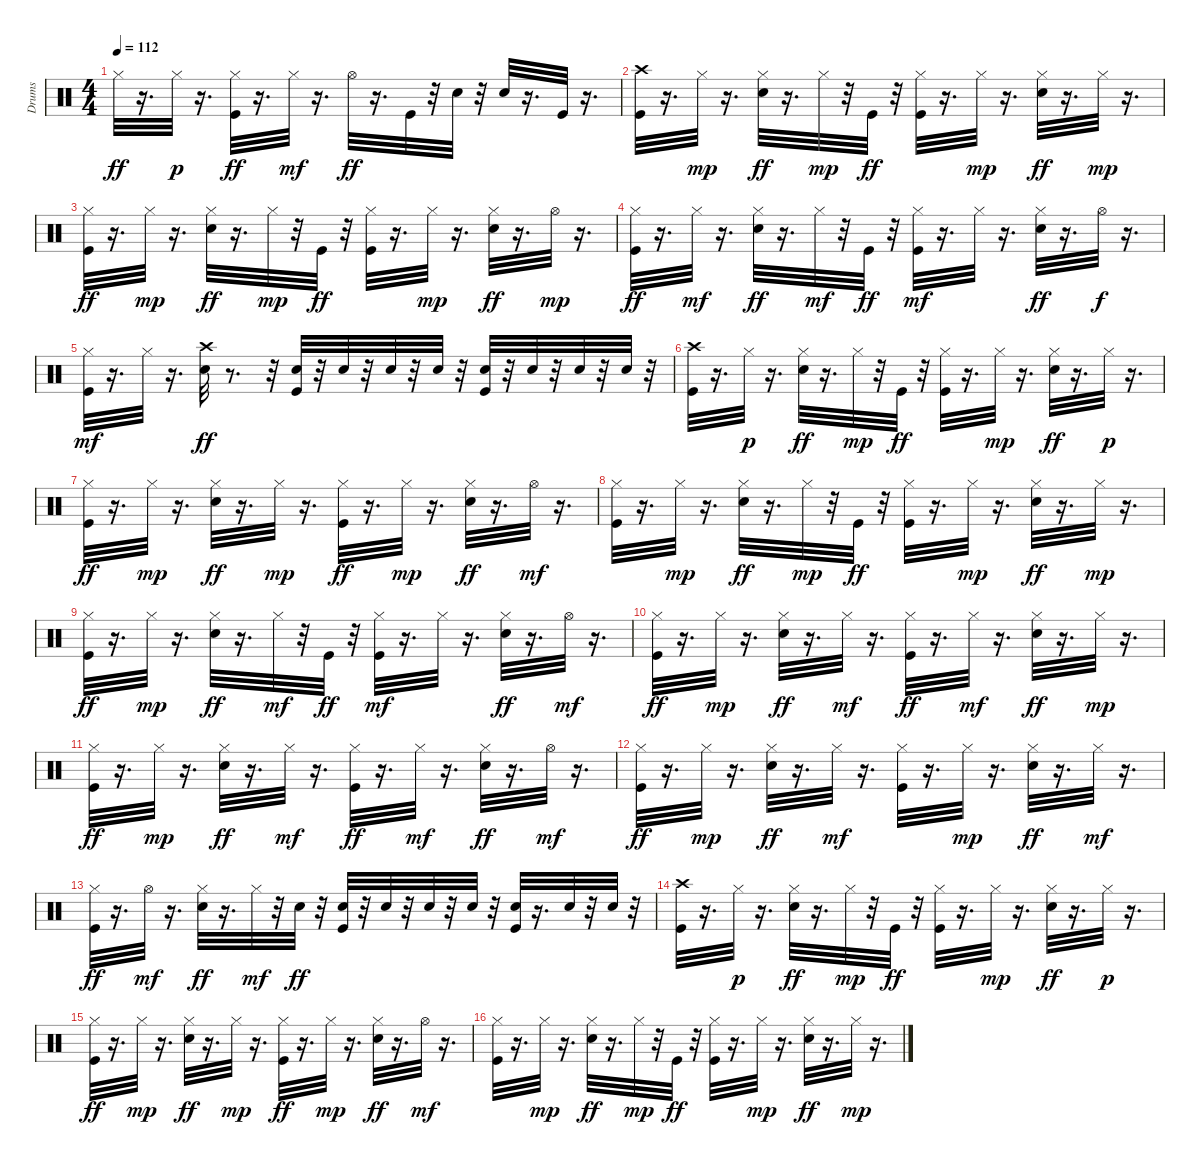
\track ("Drums" "Drums") {instrument percussion}
\staff {score}
\articulation defaults
\ts (4 4)
\tempo 112
\clef neutral
\ks c "Hi-Hat (closed)".32{dy ff}
r.16{d} "Hi-Hat (closed)".32{dy p} r.16{d} ("Hi-Hat (closed)" "Kick (hit)").32{dy ff} r.16{d} "Hi-Hat (closed)".32{dy mf} r.16{d} "Hi-Hat (open)".32{dy ff} r.16{d} "Kick (hit)".32 r.32 "Electric Snare (hit)".32 r.32 "Electric Snare (hit)".32 r.16{d} "Kick (hit)".32 r.16{d} |
("Kick (hit)" "Crash high (hit)").32 r.16{d} "Hi-Hat (closed)".32{dy mp} r.16{d} ("Hi-Hat (closed)" "Electric Snare (hit)").32{dy ff} r.16{d} "Hi-Hat (closed)".32{dy mp} r.32 "Kick (hit)".32{dy ff} r.32 ("Hi-Hat (closed)" "Kick (hit)").32 r.16{d} "Hi-Hat (closed)".32{dy mp} r.16{d} ("Electric Snare (hit)" "Hi-Hat (closed)").32{dy ff} r.16{d} "Hi-Hat (closed)".32{dy mp} r.16{d} |
("Hi-Hat (closed)" "Kick (hit)").32{dy ff} r.16{d} "Hi-Hat (closed)".32{dy mp} r.16{d} ("Electric Snare (hit)" "Hi-Hat (closed)").32{dy ff} r.16{d} "Hi-Hat (closed)".32{dy mp} r.32 "Kick (hit)".32{dy ff} r.32 ("Hi-Hat (closed)" "Kick (hit)").32 r.16{d} "Hi-Hat (closed)".32{dy mp} r.16{d} ("Electric Snare (hit)" "Hi-Hat (closed)").32{dy ff} r.16{d} "Hi-Hat (open)".32{dy mp} r.16{d} |
("Kick (hit)" "Hi-Hat (closed)").32{dy ff} r.16{d} "Hi-Hat (closed)".32{dy mf} r.16{d} ("Hi-Hat (closed)" "Electric Snare (hit)").32{dy ff} r.16{d} "Hi-Hat (closed)".32{dy mf} r.32 "Kick (hit)".32{dy ff} r.32 ("Kick (hit)" "Hi-Hat (closed)").32{dy mf} r.16{d} "Hi-Hat (closed)".32 r.16{d} ("Hi-Hat (closed)" "Electric Snare (hit)").32{dy ff} r.16{d} "Hi-Hat (open)".32{dy f} r.16{d} |
("Kick (hit)" "Hi-Hat (closed)").32{dy mf} r.16{d} "Hi-Hat (closed)".32 r.16{d} ("Crash high (hit)" "Electric Snare (hit)").32{dy ff} r.8{d} r.32 ("Kick (hit)" "Electric Snare (hit)").32 r.32 "Electric Snare (hit)".32 r.32 "Electric Snare (hit)".32 r.32 "Electric Snare (hit)".32 r.32 ("Kick (hit)" "Electric Snare (hit)").32 r.32 "Electric Snare (hit)".32 r.32 "Electric Snare (hit)".32 r.32 "Electric Snare (hit)".32 r.32 |
("Kick (hit)" "Crash high (hit)").32 r.16{d} "Hi-Hat (closed)".32{dy p} r.16{d} ("Hi-Hat (closed)" "Electric Snare (hit)").32{dy ff} r.16{d} "Hi-Hat (closed)".32{dy mp} r.32 "Kick (hit)".32{dy ff} r.32 ("Kick (hit)" "Hi-Hat (closed)").32 r.16{d} "Hi-Hat (closed)".32{dy mp} r.16{d} ("Hi-Hat (closed)" "Electric Snare (hit)").32{dy ff} r.16{d} "Hi-Hat (closed)".32{dy p} r.16{d} |
("Hi-Hat (closed)" "Kick (hit)").32{dy ff} r.16{d} "Hi-Hat (closed)".32{dy mp} r.16{d} ("Hi-Hat (closed)" "Electric Snare (hit)").32{dy ff} r.16{d} "Hi-Hat (closed)".32{dy mp} r.16{d} ("Hi-Hat (closed)" "Kick (hit)").32{dy ff} r.16{d} "Hi-Hat (closed)".32{dy mp} r.16{d} ("Hi-Hat (closed)" "Electric Snare (hit)").32{dy ff} r.16{d} "Hi-Hat (open)".32{dy mf} r.16{d} |
("Kick (hit)" "Hi-Hat (closed)").32 r.16{d} "Hi-Hat (closed)".32{dy mp} r.16{d} ("Electric Snare (hit)" "Hi-Hat (closed)").32{dy ff} r.16{d} "Hi-Hat (closed)".32{dy mp} r.32 "Kick (hit)".32{dy ff} r.32 ("Hi-Hat (closed)" "Kick (hit)").32 r.16{d} "Hi-Hat (closed)".32{dy mp} r.16{d} ("Electric Snare (hit)" "Hi-Hat (closed)").32{dy ff} r.16{d} "Hi-Hat (closed)".32{dy mp} r.16{d} |
("Hi-Hat (closed)" "Kick (hit)").32{dy ff} r.16{d} "Hi-Hat (closed)".32{dy mp} r.16{d} ("Hi-Hat (closed)" "Electric Snare (hit)").32{dy ff} r.16{d} "Hi-Hat (closed)".32{dy mf} r.32 "Kick (hit)".32{dy ff} r.32 ("Kick (hit)" "Hi-Hat (closed)").32{dy mf} r.16{d} "Hi-Hat (closed)".32 r.16{d} ("Electric Snare (hit)" "Hi-Hat (closed)").32{dy ff} r.16{d} "Hi-Hat (open)".32{dy mf} r.16{d} |
("Hi-Hat (closed)" "Kick (hit)").32{dy ff} r.16{d} "Hi-Hat (closed)".32{dy mp} r.16{d} ("Hi-Hat (closed)" "Electric Snare (hit)").32{dy ff} r.16{d} "Hi-Hat (closed)".32{dy mf} r.16{d} ("Hi-Hat (closed)" "Kick (hit)").32{dy ff} r.16{d} "Hi-Hat (closed)".32{dy mf} r.16{d} ("Hi-Hat (closed)" "Electric Snare (hit)").32{dy ff} r.16{d} "Hi-Hat (closed)".32{dy mp} r.16{d} |
("Hi-Hat (closed)" "Kick (hit)").32{dy ff} r.16{d} "Hi-Hat (closed)".32{dy mp} r.16{d} ("Hi-Hat (closed)" "Electric Snare (hit)").32{dy ff} r.16{d} "Hi-Hat (closed)".32{dy mf} r.16{d} ("Hi-Hat (closed)" "Kick (hit)").32{dy ff} r.16{d} "Hi-Hat (closed)".32{dy mf} r.16{d} ("Hi-Hat (closed)" "Electric Snare (hit)").32{dy ff} r.16{d} "Hi-Hat (open)".32{dy mf} r.16{d} |
("Hi-Hat (closed)" "Kick (hit)").32{dy ff} r.16{d} "Hi-Hat (closed)".32{dy mp} r.16{d} ("Electric Snare (hit)" "Hi-Hat (closed)").32{dy ff} r.16{d} "Hi-Hat (closed)".32{dy mf} r.16{d} ("Kick (hit)" "Hi-Hat (closed)").32 r.16{d} "Hi-Hat (closed)".32{dy mp} r.16{d} ("Hi-Hat (closed)" "Electric Snare (hit)").32{dy ff} r.16{d} "Hi-Hat (closed)".32{dy mf} r.16{d} |
("Hi-Hat (closed)" "Kick (hit)").32{dy ff} r.16{d} "Hi-Hat (open)".32{dy mf} r.16{d} ("Hi-Hat (closed)" "Electric Snare (hit)").32{dy ff} r.16{d} "Hi-Hat (closed)".32{dy mf} r.32 "Electric Snare (hit)".32{dy ff} r.32 ("Kick (hit)" "Electric Snare (hit)").32 r.32 "Electric Snare (hit)".32 r.32 "Electric Snare (hit)".32 r.32 "Electric Snare (hit)".32 r.32 ("Kick (hit)" "Electric Snare (hit)").32 r.16{d} "Electric Snare (hit)".32 r.32 "Electric Snare (hit)".32 r.32 |
("Kick (hit)" "Crash high (hit)").32 r.16{d} "Hi-Hat (closed)".32{dy p} r.16{d} ("Hi-Hat (closed)" "Electric Snare (hit)").32{dy ff} r.16{d} "Hi-Hat (closed)".32{dy mp} r.32 "Kick (hit)".32{dy ff} r.32 ("Kick (hit)" "Hi-Hat (closed)").32 r.16{d} "Hi-Hat (closed)".32{dy mp} r.16{d} ("Hi-Hat (closed)" "Electric Snare (hit)").32{dy ff} r.16{d} "Hi-Hat (closed)".32{dy p} r.16{d} |
("Hi-Hat (closed)" "Kick (hit)").32{dy ff} r.16{d} "Hi-Hat (closed)".32{dy mp} r.16{d} ("Hi-Hat (closed)" "Electric Snare (hit)").32{dy ff} r.16{d} "Hi-Hat (closed)".32{dy mp} r.16{d} ("Hi-Hat (closed)" "Kick (hit)").32{dy ff} r.16{d} "Hi-Hat (closed)".32{dy mp} r.16{d} ("Hi-Hat (closed)" "Electric Snare (hit)").32{dy ff} r.16{d} "Hi-Hat (open)".32{dy mf} r.16{d} |
("Kick (hit)" "Hi-Hat (closed)").32 r.16{d} "Hi-Hat (closed)".32{dy mp} r.16{d} ("Electric Snare (hit)" "Hi-Hat (closed)").32{dy ff} r.16{d} "Hi-Hat (closed)".32{dy mp} r.32 "Kick (hit)".32{dy ff} r.32 ("Hi-Hat (closed)" "Kick (hit)").32 r.16{d} "Hi-Hat (closed)".32{dy mp} r.16{d} ("Electric Snare (hit)" "Hi-Hat (closed)").32{dy ff} r.16{d} "Hi-Hat (closed)".32{dy mp} r.16{d}
